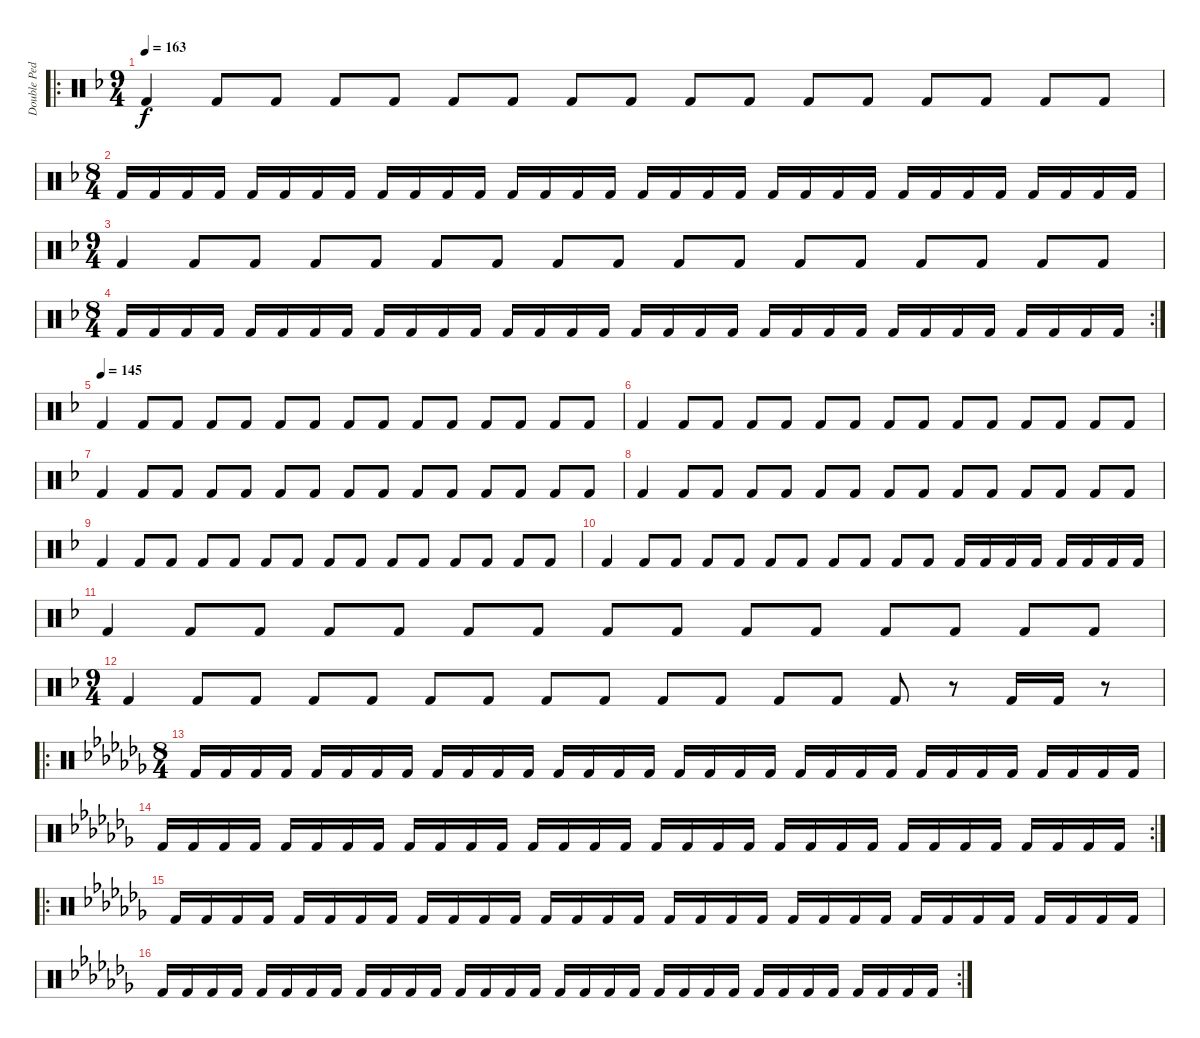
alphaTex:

\track ("Double Pedal" "Double Ped") {instrument percussion}
\staff
\articulation defaults
\ro
\ts (9 4)
\tempo 163
\clef neutral
\ks f "Kick (hit) 2".4{dy f} "Kick (hit) 2".8 "Kick (hit) 2".8 "Kick (hit) 2".8 "Kick (hit) 2".8 "Kick (hit) 2".8 "Kick (hit) 2".8 "Kick (hit) 2".8 "Kick (hit) 2".8 "Kick (hit) 2".8 "Kick (hit) 2".8 "Kick (hit) 2".8 "Kick (hit) 2".8 "Kick (hit) 2".8 "Kick (hit) 2".8 "Kick (hit) 2".8 "Kick (hit) 2".8
|
\ts (8 4)
"Kick (hit) 2".16 "Kick (hit) 2".16 "Kick (hit) 2".16 "Kick (hit) 2".16 "Kick (hit) 2".16 "Kick (hit) 2".16 "Kick (hit) 2".16 "Kick (hit) 2".16 "Kick (hit) 2".16 "Kick (hit) 2".16 "Kick (hit) 2".16 "Kick (hit) 2".16 "Kick (hit) 2".16 "Kick (hit) 2".16 "Kick (hit) 2".16 "Kick (hit) 2".16 "Kick (hit) 2".16 "Kick (hit) 2".16 "Kick (hit) 2".16 "Kick (hit) 2".16 "Kick (hit) 2".16 "Kick (hit) 2".16 "Kick (hit) 2".16 "Kick (hit) 2".16 "Kick (hit) 2".16 "Kick (hit) 2".16 "Kick (hit) 2".16 "Kick (hit) 2".16 "Kick (hit) 2".16 "Kick (hit) 2".16 "Kick (hit) 2".16 "Kick (hit) 2".16 |
\ts (9 4)
"Kick (hit) 2".4 "Kick (hit) 2".8 "Kick (hit) 2".8 "Kick (hit) 2".8 "Kick (hit) 2".8 "Kick (hit) 2".8 "Kick (hit) 2".8 "Kick (hit) 2".8 "Kick (hit) 2".8 "Kick (hit) 2".8 "Kick (hit) 2".8 "Kick (hit) 2".8 "Kick (hit) 2".8 "Kick (hit) 2".8 "Kick (hit) 2".8 "Kick (hit) 2".8 "Kick (hit) 2".8 |
\rc 2
\ts (8 4)
"Kick (hit) 2".16 "Kick (hit) 2".16 "Kick (hit) 2".16 "Kick (hit) 2".16 "Kick (hit) 2".16 "Kick (hit) 2".16 "Kick (hit) 2".16 "Kick (hit) 2".16 "Kick (hit) 2".16 "Kick (hit) 2".16 "Kick (hit) 2".16 "Kick (hit) 2".16 "Kick (hit) 2".16 "Kick (hit) 2".16 "Kick (hit) 2".16 "Kick (hit) 2".16 "Kick (hit) 2".16 "Kick (hit) 2".16 "Kick (hit) 2".16 "Kick (hit) 2".16 "Kick (hit) 2".16 "Kick (hit) 2".16 "Kick (hit) 2".16 "Kick (hit) 2".16 "Kick (hit) 2".16 "Kick (hit) 2".16 "Kick (hit) 2".16 "Kick (hit) 2".16 "Kick (hit) 2".16 "Kick (hit) 2".16 "Kick (hit) 2".16 "Kick (hit) 2".16 |
\tempo (145)
"Kick (hit) 2".4 "Kick (hit) 2".8 "Kick (hit) 2".8 "Kick (hit) 2".8 "Kick (hit) 2".8 "Kick (hit) 2".8 "Kick (hit) 2".8 "Kick (hit) 2".8 "Kick (hit) 2".8 "Kick (hit) 2".8 "Kick (hit) 2".8 "Kick (hit) 2".8 "Kick (hit) 2".8 "Kick (hit) 2".8 "Kick (hit) 2".8 |
"Kick (hit) 2".4 "Kick (hit) 2".8 "Kick (hit) 2".8 "Kick (hit) 2".8 "Kick (hit) 2".8 "Kick (hit) 2".8 "Kick (hit) 2".8 "Kick (hit) 2".8 "Kick (hit) 2".8 "Kick (hit) 2".8 "Kick (hit) 2".8 "Kick (hit) 2".8 "Kick (hit) 2".8 "Kick (hit) 2".8 "Kick (hit) 2".8 |
"Kick (hit) 2".4 "Kick (hit) 2".8 "Kick (hit) 2".8 "Kick (hit) 2".8 "Kick (hit) 2".8 "Kick (hit) 2".8 "Kick (hit) 2".8 "Kick (hit) 2".8 "Kick (hit) 2".8 "Kick (hit) 2".8 "Kick (hit) 2".8 "Kick (hit) 2".8 "Kick (hit) 2".8 "Kick (hit) 2".8 "Kick (hit) 2".8 |
"Kick (hit) 2".4 "Kick (hit) 2".8 "Kick (hit) 2".8 "Kick (hit) 2".8 "Kick (hit) 2".8 "Kick (hit) 2".8 "Kick (hit) 2".8 "Kick (hit) 2".8 "Kick (hit) 2".8 "Kick (hit) 2".8 "Kick (hit) 2".8 "Kick (hit) 2".8 "Kick (hit) 2".8 "Kick (hit) 2".8 "Kick (hit) 2".8 |
"Kick (hit) 2".4 "Kick (hit) 2".8 "Kick (hit) 2".8 "Kick (hit) 2".8 "Kick (hit) 2".8 "Kick (hit) 2".8 "Kick (hit) 2".8 "Kick (hit) 2".8 "Kick (hit) 2".8 "Kick (hit) 2".8 "Kick (hit) 2".8 "Kick (hit) 2".8 "Kick (hit) 2".8 "Kick (hit) 2".8 "Kick (hit) 2".8 |
"Kick (hit) 2".4 "Kick (hit) 2".8 "Kick (hit) 2".8 "Kick (hit) 2".8 "Kick (hit) 2".8 "Kick (hit) 2".8 "Kick (hit) 2".8 "Kick (hit) 2".8 "Kick (hit) 2".8 "Kick (hit) 2".8 "Kick (hit) 2".8 "Kick (hit) 2".16 "Kick (hit) 2".16 "Kick (hit) 2".16 "Kick (hit) 2".16 "Kick (hit) 2".16 "Kick (hit) 2".16 "Kick (hit) 2".16 "Kick (hit) 2".16 |
"Kick (hit) 2".4 "Kick (hit) 2".8 "Kick (hit) 2".8 "Kick (hit) 2".8 "Kick (hit) 2".8 "Kick (hit) 2".8 "Kick (hit) 2".8 "Kick (hit) 2".8 "Kick (hit) 2".8 "Kick (hit) 2".8 "Kick (hit) 2".8 "Kick (hit) 2".8 "Kick (hit) 2".8 "Kick (hit) 2".8 "Kick (hit) 2".8 |
\ts (9 4)
"Kick (hit) 2".4 "Kick (hit) 2".8 "Kick (hit) 2".8 "Kick (hit) 2".8 "Kick (hit) 2".8 "Kick (hit) 2".8 "Kick (hit) 2".8 "Kick (hit) 2".8 "Kick (hit) 2".8 "Kick (hit) 2".8 "Kick (hit) 2".8 "Kick (hit) 2".8 "Kick (hit) 2".8 "Kick (hit) 2".8 r.8 "Kick (hit) 2".16 "Kick (hit) 2".16 r.8 |
\ro
\ts (8 4)
\ks cb "Kick (hit) 2".16 "Kick (hit) 2".16 "Kick (hit) 2".16 "Kick (hit) 2".16 "Kick (hit) 2".16 "Kick (hit) 2".16 "Kick (hit) 2".16 "Kick (hit) 2".16 "Kick (hit) 2".16 "Kick (hit) 2".16 "Kick (hit) 2".16 "Kick (hit) 2".16 "Kick (hit) 2".16 "Kick (hit) 2".16 "Kick (hit) 2".16 "Kick (hit) 2".16 "Kick (hit) 2".16 "Kick (hit) 2".16 "Kick (hit) 2".16 "Kick (hit) 2".16 "Kick (hit) 2".16 "Kick (hit) 2".16 "Kick (hit) 2".16 "Kick (hit) 2".16 "Kick (hit) 2".16 "Kick (hit) 2".16 "Kick (hit) 2".16 "Kick (hit) 2".16 "Kick (hit) 2".16 "Kick (hit) 2".16 "Kick (hit) 2".16 "Kick (hit) 2".16
|
\rc 2 "Kick (hit) 2".16 "Kick (hit) 2".16 "Kick (hit) 2".16 "Kick (hit) 2".16 "Kick (hit) 2".16 "Kick (hit) 2".16 "Kick (hit) 2".16 "Kick (hit) 2".16 "Kick (hit) 2".16 "Kick (hit) 2".16 "Kick (hit) 2".16 "Kick (hit) 2".16 "Kick (hit) 2".16 "Kick (hit) 2".16 "Kick (hit) 2".16 "Kick (hit) 2".16 "Kick (hit) 2".16 "Kick (hit) 2".16 "Kick (hit) 2".16 "Kick (hit) 2".16 "Kick (hit) 2".16 "Kick (hit) 2".16 "Kick (hit) 2".16 "Kick (hit) 2".16 "Kick (hit) 2".16 "Kick (hit) 2".16 "Kick (hit) 2".16 "Kick (hit) 2".16 "Kick (hit) 2".16 "Kick (hit) 2".16 "Kick (hit) 2".16 "Kick (hit) 2".16
|
\ro "Kick (hit) 2".16 "Kick (hit) 2".16 "Kick (hit) 2".16 "Kick (hit) 2".16 "Kick (hit) 2".16 "Kick (hit) 2".16 "Kick (hit) 2".16 "Kick (hit) 2".16 "Kick (hit) 2".16 "Kick (hit) 2".16 "Kick (hit) 2".16 "Kick (hit) 2".16 "Kick (hit) 2".16 "Kick (hit) 2".16 "Kick (hit) 2".16 "Kick (hit) 2".16 "Kick (hit) 2".16 "Kick (hit) 2".16 "Kick (hit) 2".16 "Kick (hit) 2".16 "Kick (hit) 2".16 "Kick (hit) 2".16 "Kick (hit) 2".16 "Kick (hit) 2".16 "Kick (hit) 2".16 "Kick (hit) 2".16 "Kick (hit) 2".16 "Kick (hit) 2".16 "Kick (hit) 2".16 "Kick (hit) 2".16 "Kick (hit) 2".16 "Kick (hit) 2".16
|
\rc 2 "Kick (hit) 2".16 "Kick (hit) 2".16 "Kick (hit) 2".16 "Kick (hit) 2".16 "Kick (hit) 2".16 "Kick (hit) 2".16 "Kick (hit) 2".16 "Kick (hit) 2".16 "Kick (hit) 2".16 "Kick (hit) 2".16 "Kick (hit) 2".16 "Kick (hit) 2".16 "Kick (hit) 2".16 "Kick (hit) 2".16 "Kick (hit) 2".16 "Kick (hit) 2".16 "Kick (hit) 2".16 "Kick (hit) 2".16 "Kick (hit) 2".16 "Kick (hit) 2".16 "Kick (hit) 2".16 "Kick (hit) 2".16 "Kick (hit) 2".16 "Kick (hit) 2".16 "Kick (hit) 2".16 "Kick (hit) 2".16 "Kick (hit) 2".16 "Kick (hit) 2".16 "Kick (hit) 2".16 "Kick (hit) 2".16 "Kick (hit) 2".16 "Kick (hit) 2".16
